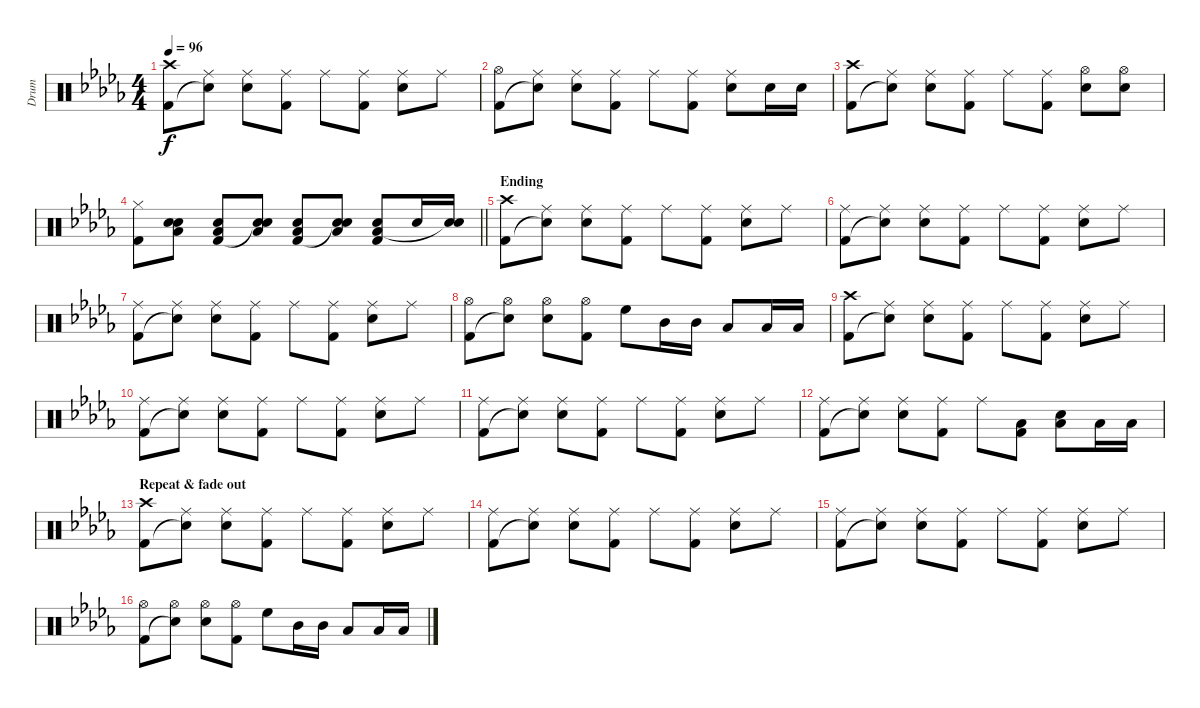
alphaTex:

\track ("Drum" "Drum") {instrument percussion}
\staff {score}
\articulation defaults
\ts (4 4)
\tempo 96
\clef neutral
\ks db
("Crash high (hit)" "Kick (hit) 2").8{dy f} ("Ride (middle)" "Snare (hit)"{t}).8 ("Ride (middle)" "Snare (hit) 2").8 ("Ride (middle)" "Kick (hit) 2").8 "Ride (middle)".8 ("Ride (middle)" "Kick (hit) 2").8 ("Ride (middle)" "Snare (hit) 2").8 "Ride (middle)".8 |
("Hi-Hat (open)" "Kick (hit) 2").8 ("Ride (middle)" "Snare (hit)"{t}).8 ("Ride (middle)" "Snare (hit) 2").8 ("Ride (middle)" "Kick (hit) 2").8 "Ride (middle)".8 ("Ride (middle)" "Kick (hit) 2").8 ("Ride (middle)" "Snare (hit) 2").8 "Snare (hit) 2".16 "Snare (hit) 2".16 |
("Crash high (hit)" "Kick (hit) 2").8 ("Ride (middle)" "Snare (hit)"{t}).8 ("Ride (middle)" "Snare (hit) 2").8 ("Ride (middle)" "Kick (hit) 2").8 "Ride (middle)".8 ("Ride (middle)" "Kick (hit) 2").8 ("Hi-Hat (open)" "Snare (hit) 2").8 ("Hi-Hat (open)" "Snare (hit) 2").8 |
\barLineRight lightlight
("Hi-Hat (closed)" "Kick (hit) 2").8 ("Snare (hit) 2" "Low Tom (hit)" "Snare (hit)").8 ("Snare (hit) 2" "Low Tom (hit)" "Kick (hit) 2").8 ("Snare (hit) 2" "Low Tom (hit)" "Snare (hit)"{t}).8 ("Snare (hit) 2" "Low Tom (hit)" "Kick (hit) 2").8 ("Snare (hit) 2" "Low Tom (hit)" "Snare (hit)"{t}).8 ("Snare (hit) 2" "Low Tom (hit)" "Kick (hit) 2").8 "Snare (hit) 2".16 ("Snare (hit) 2" "Snare (hit)"{t}).16 |
\section ("" "Ending")
("Crash high (hit)" "Kick (hit) 2").8 ("Ride (middle)" "Snare (hit)"{t}).8 ("Ride (middle)" "Snare (hit) 2").8 ("Ride (middle)" "Kick (hit) 2").8 "Ride (middle)".8 ("Ride (middle)" "Kick (hit) 2").8 ("Ride (middle)" "Snare (hit) 2").8 "Ride (middle)".8 |
("Ride (middle)" "Kick (hit) 2").8 ("Ride (middle)" "Snare (hit)"{t}).8 ("Ride (middle)" "Snare (hit) 2").8 ("Ride (middle)" "Kick (hit) 2").8 "Ride (middle)".8 ("Ride (middle)" "Kick (hit) 2").8 ("Ride (middle)" "Snare (hit) 2").8 "Ride (middle)".8 |
("Ride (middle)" "Kick (hit) 2").8 ("Ride (middle)" "Snare (hit)"{t}).8 ("Ride (middle)" "Snare (hit) 2").8 ("Ride (middle)" "Kick (hit) 2").8 "Ride (middle)".8 ("Ride (middle)" "Kick (hit) 2").8 ("Ride (middle)" "Snare (hit) 2").8 "Ride (middle)".8 |
("Hi-Hat (open)" "Kick (hit) 2").8 ("Hi-Hat (open)" "Snare (hit)"{t}).8 ("Hi-Hat (open)" "Snare (hit) 2").8 ("Hi-Hat (open)" "Kick (hit) 2").8 "High Floor Tom (hit)".8 "Mid Tom (hit)".16 "Mid Tom (hit)".16 "Low Tom (hit)".8 "Low Tom (hit)".16 "Low Tom (hit)".16 |
("Crash high (hit)" "Kick (hit) 2").8 ("Ride (middle)" "Snare (hit)"{t}).8 ("Ride (middle)" "Snare (hit) 2").8 ("Ride (middle)" "Kick (hit) 2").8 "Ride (middle)".8 ("Ride (middle)" "Kick (hit) 2").8 ("Ride (middle)" "Snare (hit) 2").8 "Ride (middle)".8 |
("Ride (middle)" "Kick (hit) 2").8 ("Ride (middle)" "Snare (hit)"{t}).8 ("Ride (middle)" "Snare (hit) 2").8 ("Ride (middle)" "Kick (hit) 2").8 "Ride (middle)".8 ("Ride (middle)" "Kick (hit) 2").8 ("Ride (middle)" "Snare (hit) 2").8 "Ride (middle)".8 |
("Ride (middle)" "Kick (hit) 2").8 ("Ride (middle)" "Snare (hit)"{t}).8 ("Ride (middle)" "Snare (hit) 2").8 ("Ride (middle)" "Kick (hit) 2").8 "Ride (middle)".8 ("Ride (middle)" "Kick (hit) 2").8 ("Ride (middle)" "Snare (hit) 2").8 "Ride (middle)".8 |
("Ride (middle)" "Kick (hit) 2").8 ("Ride (middle)" "Snare (hit)"{t}).8 ("Ride (middle)" "Snare (hit) 2").8 ("Ride (middle)" "Kick (hit) 2").8 "Ride (middle)".8 ("Low Tom (hit)" "Kick (hit) 2").8 ("Snare (hit) 2" "Low Tom (hit)").8 "Low Tom (hit)".16 "Low Tom (hit)".16 |
\section ("" "Repeat & fade out")
("Crash high (hit)" "Kick (hit) 2").8 ("Ride (middle)" "Snare (hit)"{t}).8 ("Ride (middle)" "Snare (hit) 2").8 ("Ride (middle)" "Kick (hit) 2").8 "Ride (middle)".8 ("Ride (middle)" "Kick (hit) 2").8 ("Ride (middle)" "Snare (hit) 2").8 "Ride (middle)".8 |
("Ride (middle)" "Kick (hit) 2").8 ("Ride (middle)" "Snare (hit)"{t}).8 ("Ride (middle)" "Snare (hit) 2").8 ("Ride (middle)" "Kick (hit) 2").8 "Ride (middle)".8 ("Ride (middle)" "Kick (hit) 2").8 ("Ride (middle)" "Snare (hit) 2").8 "Ride (middle)".8 |
("Ride (middle)" "Kick (hit) 2").8 ("Ride (middle)" "Snare (hit)"{t}).8 ("Ride (middle)" "Snare (hit) 2").8 ("Ride (middle)" "Kick (hit) 2").8 "Ride (middle)".8 ("Ride (middle)" "Kick (hit) 2").8 ("Ride (middle)" "Snare (hit) 2").8 "Ride (middle)".8 |
("Hi-Hat (open)" "Kick (hit) 2").8 ("Hi-Hat (open)" "Snare (hit)"{t}).8 ("Hi-Hat (open)" "Snare (hit) 2").8 ("Hi-Hat (open)" "Kick (hit) 2").8 "High Floor Tom (hit)".8 "Mid Tom (hit)".16 "Mid Tom (hit)".16 "Low Tom (hit)".8 "Low Tom (hit)".16 "Low Tom (hit)".16
